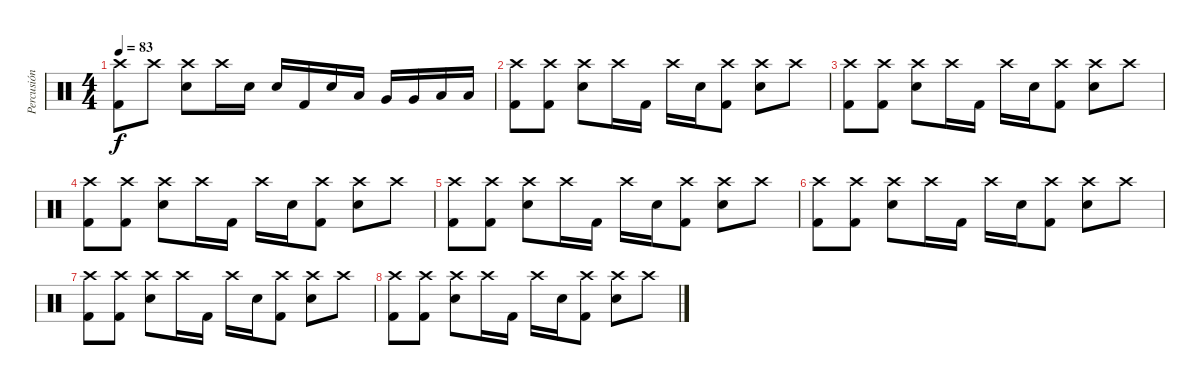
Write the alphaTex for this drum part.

\track ("Percusión" "Percusión") {instrument percussion}
\staff {score}
\articulation defaults
\ts (4 4)
\tempo 83
\clef neutral
\ks c
("Crash high (hit)" "Kick (hit) 2").8{dy f} "Crash high (hit)".8 ("Crash high (hit)" "Snare (hit) 2").8 "Crash high (hit)".16 "Snare (hit) 2".16 "Snare (hit) 2".16 "Kick (hit) 2".16 "Snare (hit) 2".16 "Low Tom (hit)".16 "Very Low Tom (hit)".16 "Very Low Tom (hit)".16 "Low Floor Tom (hit)".16 "Low Floor Tom (hit)".16 |
("Crash high (hit)" "Kick (hit) 2").8{volume 6} ("Crash high (hit)" "Kick (hit) 2").8 ("Crash high (hit)" "Snare (hit) 2").8 "Crash high (hit)".16 "Kick (hit) 2".16 "Crash high (hit)".16 "Snare (hit) 2".16 ("Crash high (hit)" "Kick (hit) 2").8 ("Crash high (hit)" "Snare (hit) 2").8 "Crash high (hit)".8 |
("Crash high (hit)" "Kick (hit) 2").8 ("Crash high (hit)" "Kick (hit) 2").8 ("Crash high (hit)" "Snare (hit) 2").8 "Crash high (hit)".16 "Kick (hit) 2".16 "Crash high (hit)".16 "Snare (hit) 2".16 ("Crash high (hit)" "Kick (hit) 2").8 ("Crash high (hit)" "Snare (hit) 2").8 "Crash high (hit)".8 |
("Crash high (hit)" "Kick (hit) 2").8 ("Crash high (hit)" "Kick (hit) 2").8 ("Crash high (hit)" "Snare (hit) 2").8 "Crash high (hit)".16 "Kick (hit) 2".16 "Crash high (hit)".16 "Snare (hit) 2".16 ("Crash high (hit)" "Kick (hit) 2").8 ("Crash high (hit)" "Snare (hit) 2").8 "Crash high (hit)".8 |
("Crash high (hit)" "Kick (hit) 2").8 ("Crash high (hit)" "Kick (hit) 2").8 ("Crash high (hit)" "Snare (hit) 2").8 "Crash high (hit)".16 "Kick (hit) 2".16 "Crash high (hit)".16 "Snare (hit) 2".16 ("Crash high (hit)" "Kick (hit) 2").8 ("Crash high (hit)" "Snare (hit) 2").8 "Crash high (hit)".8 |
("Crash high (hit)" "Kick (hit) 2").8{volume 0} ("Crash high (hit)" "Kick (hit) 2").8 ("Crash high (hit)" "Snare (hit) 2").8 "Crash high (hit)".16 "Kick (hit) 2".16 "Crash high (hit)".16 "Snare (hit) 2".16 ("Crash high (hit)" "Kick (hit) 2").8 ("Crash high (hit)" "Snare (hit) 2").8 "Crash high (hit)".8 |
("Crash high (hit)" "Kick (hit) 2").8 ("Crash high (hit)" "Kick (hit) 2").8 ("Crash high (hit)" "Snare (hit) 2").8 "Crash high (hit)".16 "Kick (hit) 2".16 "Crash high (hit)".16 "Snare (hit) 2".16 ("Crash high (hit)" "Kick (hit) 2").8 ("Crash high (hit)" "Snare (hit) 2").8 "Crash high (hit)".8 |
("Crash high (hit)" "Kick (hit) 2").8 ("Crash high (hit)" "Kick (hit) 2").8 ("Crash high (hit)" "Snare (hit) 2").8 "Crash high (hit)".16 "Kick (hit) 2".16 "Crash high (hit)".16 "Snare (hit) 2".16 ("Crash high (hit)" "Kick (hit) 2").8 ("Crash high (hit)" "Snare (hit) 2").8 "Crash high (hit)".8
